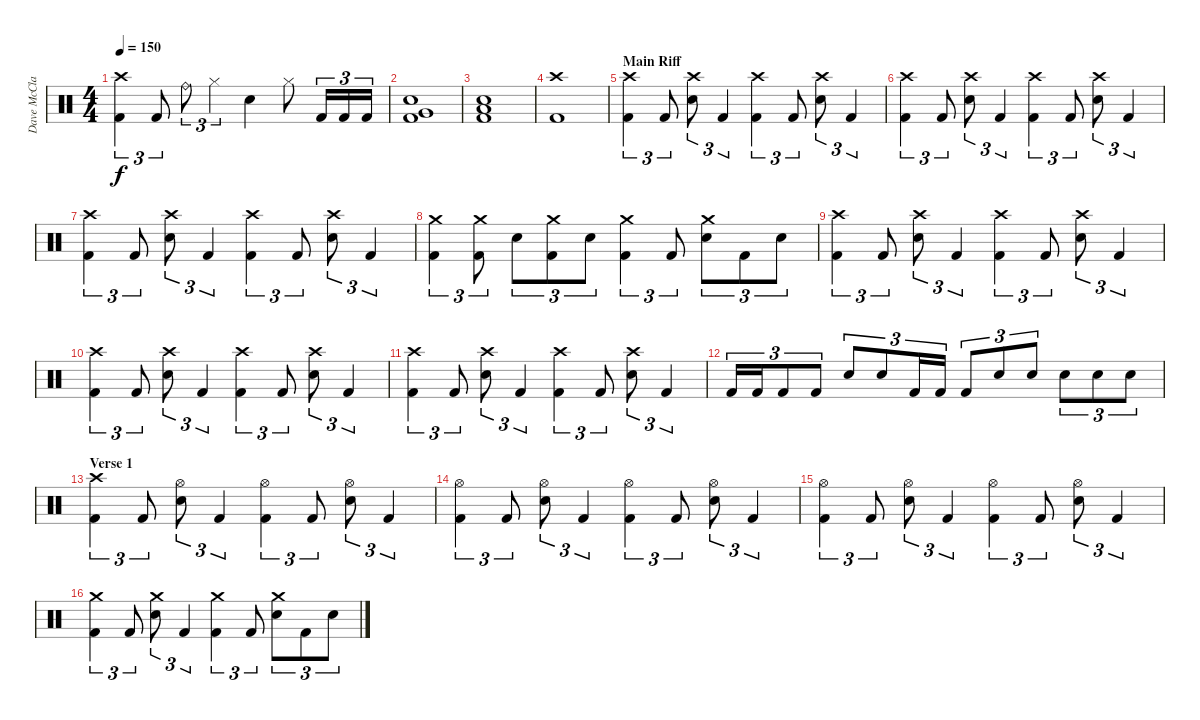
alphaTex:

\track ("Dave McClain" "Dave McCla") {instrument percussion}
\staff {score}
\articulation defaults
\ts (4 4)
\tempo 150
\clef neutral
\ks c
("Crash high (hit)" "Kick (hit) 2").4{tu (3 2) dy f} "Kick (hit) 2".8{tu (3 2)} "Ride (bell)".8{tu (3 2)} "Hi-Hat (closed)".4{tu (3 2)} "Electric Snare (hit)".4 "Hi-Hat (closed)".8 "Kick (hit) 2".16{tu (3 2)} "Kick (hit) 2".16{tu (3 2)} "Kick (hit) 2".16{tu (3 2)} |
("Very Low Tom (hit)" "Electric Snare (hit)" "Kick (hit) 2").1 |
("Low Tom (hit)" "Electric Snare (hit)" "Kick (hit) 2").1 |
("Crash high (hit)" "Kick (hit) 2").1 |
\section ("" "Main Riff")
("Crash high (hit)" "Kick (hit) 2").4{tu (3 2)} "Kick (hit) 2".8{tu (3 2)} ("Crash high (hit)" "Electric Snare (hit)").8{tu (3 2)} "Kick (hit) 2".4{tu (3 2)} ("Crash high (hit)" "Kick (hit) 2").4{tu (3 2)} "Kick (hit) 2".8{tu (3 2)} ("Crash high (hit)" "Electric Snare (hit)").8{tu (3 2)} "Kick (hit) 2".4{tu (3 2)} |
("Crash high (hit)" "Kick (hit) 2").4{tu (3 2)} "Kick (hit) 2".8{tu (3 2)} ("Crash high (hit)" "Electric Snare (hit)").8{tu (3 2)} "Kick (hit) 2".4{tu (3 2)} ("Crash high (hit)" "Kick (hit) 2").4{tu (3 2)} "Kick (hit) 2".8{tu (3 2)} ("Crash high (hit)" "Electric Snare (hit)").8{tu (3 2)} "Kick (hit) 2".4{tu (3 2)} |
("Crash high (hit)" "Kick (hit) 2").4{tu (3 2)} "Kick (hit) 2".8{tu (3 2)} ("Crash high (hit)" "Electric Snare (hit)").8{tu (3 2)} "Kick (hit) 2".4{tu (3 2)} ("Crash high (hit)" "Kick (hit) 2").4{tu (3 2)} "Kick (hit) 2".8{tu (3 2)} ("Crash high (hit)" "Electric Snare (hit)").8{tu (3 2)} "Kick (hit) 2".4{tu (3 2)} |
("Crash medium (hit)" "Kick (hit) 2").4{tu (3 2)} ("Crash medium (hit)" "Kick (hit) 2").8{tu (3 2)} "Electric Snare (hit)".8{tu (3 2)} ("Crash medium (hit)" "Kick (hit) 2").8{tu (3 2)} "Electric Snare (hit)".8{tu (3 2)} ("Crash medium (hit)" "Kick (hit) 2").4{tu (3 2)} "Kick (hit) 2".8{tu (3 2)} ("Crash medium (hit)" "Electric Snare (hit)").8{tu (3 2)} "Kick (hit) 2".8{tu (3 2)} "Electric Snare (hit)".8{tu (3 2)} |
("Crash high (hit)" "Kick (hit) 2").4{tu (3 2)} "Kick (hit) 2".8{tu (3 2)} ("Crash high (hit)" "Electric Snare (hit)").8{tu (3 2)} "Kick (hit) 2".4{tu (3 2)} ("Crash high (hit)" "Kick (hit) 2").4{tu (3 2)} "Kick (hit) 2".8{tu (3 2)} ("Crash high (hit)" "Electric Snare (hit)").8{tu (3 2)} "Kick (hit) 2".4{tu (3 2)} |
("Crash high (hit)" "Kick (hit) 2").4{tu (3 2)} "Kick (hit) 2".8{tu (3 2)} ("Crash high (hit)" "Electric Snare (hit)").8{tu (3 2)} "Kick (hit) 2".4{tu (3 2)} ("Crash high (hit)" "Kick (hit) 2").4{tu (3 2)} "Kick (hit) 2".8{tu (3 2)} ("Crash high (hit)" "Electric Snare (hit)").8{tu (3 2)} "Kick (hit) 2".4{tu (3 2)} |
("Crash high (hit)" "Kick (hit) 2").4{tu (3 2)} "Kick (hit) 2".8{tu (3 2)} ("Crash high (hit)" "Electric Snare (hit)").8{tu (3 2)} "Kick (hit) 2".4{tu (3 2)} ("Crash high (hit)" "Kick (hit) 2").4{tu (3 2)} "Kick (hit) 2".8{tu (3 2)} ("Crash high (hit)" "Electric Snare (hit)").8{tu (3 2)} "Kick (hit) 2".4{tu (3 2)} |
"Kick (hit) 2".16{tu (3 2)} "Kick (hit) 2".16{tu (3 2)} "Kick (hit) 2".8{tu (3 2)} "Kick (hit) 2".8{tu (3 2)} "Electric Snare (hit)".8{tu (3 2)} "Electric Snare (hit)".8{tu (3 2)} "Kick (hit) 2".16{tu (3 2)} "Kick (hit) 2".16{tu (3 2)} "Kick (hit) 2".8{tu (3 2)} "Electric Snare (hit)".8{tu (3 2)} "Electric Snare (hit)".8{tu (3 2)} "Electric Snare (hit)".8{tu (3 2)} "Electric Snare (hit)".8{tu (3 2)} "Electric Snare (hit)".8{tu (3 2)} |
\section ("" "Verse 1")
("Crash high (hit)" "Kick (hit) 2").4{tu (3 2)} "Kick (hit) 2".8{tu (3 2)} ("Hi-Hat (open)" "Electric Snare (hit)").8{tu (3 2)} "Kick (hit) 2".4{tu (3 2)} ("Hi-Hat (open)" "Kick (hit) 2").4{tu (3 2)} "Kick (hit) 2".8{tu (3 2)} ("Hi-Hat (open)" "Electric Snare (hit)").8{tu (3 2)} "Kick (hit) 2".4{tu (3 2)} |
("Hi-Hat (open)" "Kick (hit) 2").4{tu (3 2)} "Kick (hit) 2".8{tu (3 2)} ("Hi-Hat (open)" "Electric Snare (hit)").8{tu (3 2)} "Kick (hit) 2".4{tu (3 2)} ("Hi-Hat (open)" "Kick (hit) 2").4{tu (3 2)} "Kick (hit) 2".8{tu (3 2)} ("Hi-Hat (open)" "Electric Snare (hit)").8{tu (3 2)} "Kick (hit) 2".4{tu (3 2)} |
("Hi-Hat (open)" "Kick (hit) 2").4{tu (3 2)} "Kick (hit) 2".8{tu (3 2)} ("Hi-Hat (open)" "Electric Snare (hit)").8{tu (3 2)} "Kick (hit) 2".4{tu (3 2)} ("Hi-Hat (open)" "Kick (hit) 2").4{tu (3 2)} "Kick (hit) 2".8{tu (3 2)} ("Hi-Hat (open)" "Electric Snare (hit)").8{tu (3 2)} "Kick (hit) 2".4{tu (3 2)} |
("Crash medium (hit)" "Kick (hit) 2").4{tu (3 2)} "Kick (hit) 2".8{tu (3 2)} ("Crash medium (hit)" "Electric Snare (hit)").8{tu (3 2)} "Kick (hit) 2".4{tu (3 2)} ("Crash medium (hit)" "Kick (hit) 2").4{tu (3 2)} "Kick (hit) 2".8{tu (3 2)} ("Crash medium (hit)" "Electric Snare (hit)").8{tu (3 2)} "Kick (hit) 2".8{tu (3 2)} "Electric Snare (hit)".8{tu (3 2)}
